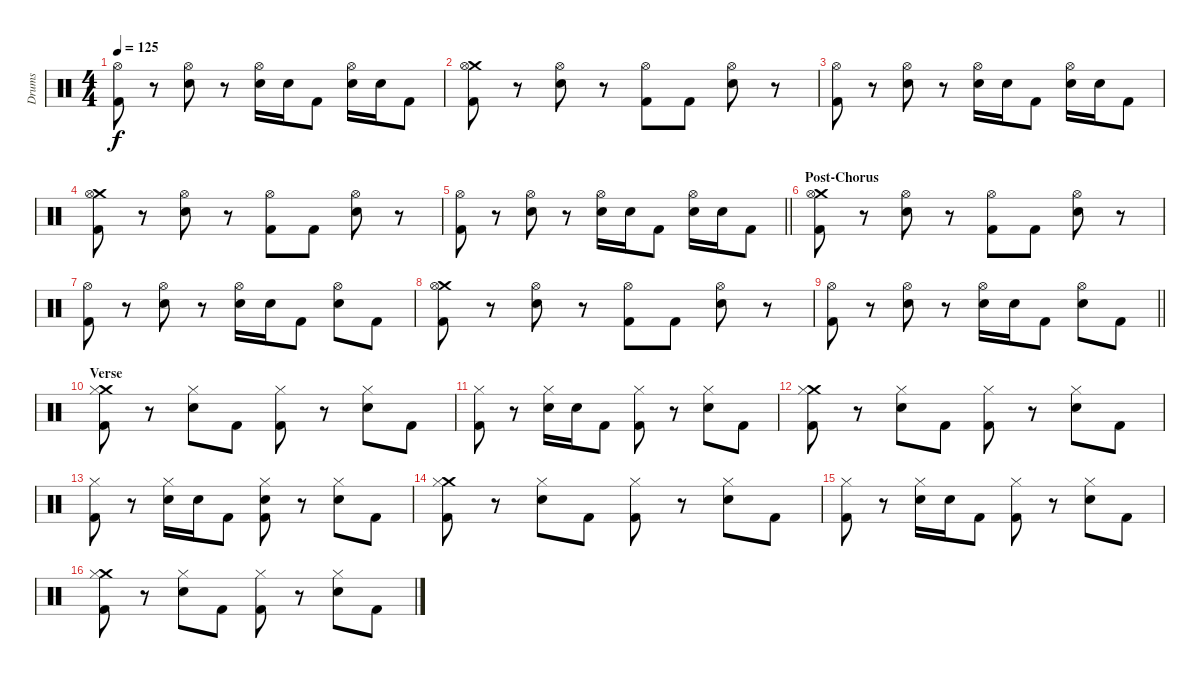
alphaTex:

\track ("Drums" "Drums") {instrument percussion}
\staff {score}
\articulation defaults
\ts (4 4)
\tempo 125
\clef neutral
\ks c
("Hi-Hat (open)" "Kick (hit) 2").8{dy f} r.8 ("Hi-Hat (open)" "Electric Snare (hit)").8 r.8 ("Hi-Hat (open)" "Electric Snare (hit)").16 "Electric Snare (hit)".16 "Kick (hit) 2".8 ("Hi-Hat (open)" "Electric Snare (hit)").16 "Electric Snare (hit)".16 "Kick (hit) 2".8 |
("Crash medium (hit)" "Hi-Hat (open)" "Kick (hit) 2").8 r.8 ("Hi-Hat (open)" "Electric Snare (hit)").8 r.8 ("Hi-Hat (open)" "Kick (hit) 2").8 "Kick (hit) 2".8 ("Hi-Hat (open)" "Electric Snare (hit)").8 r.8 |
("Hi-Hat (open)" "Kick (hit) 2").8 r.8 ("Hi-Hat (open)" "Electric Snare (hit)").8 r.8 ("Hi-Hat (open)" "Electric Snare (hit)").16 "Electric Snare (hit)".16 "Kick (hit) 2".8 ("Hi-Hat (open)" "Electric Snare (hit)").16 "Electric Snare (hit)".16 "Kick (hit) 2".8 |
("Crash medium (hit)" "Hi-Hat (open)" "Kick (hit) 2").8 r.8 ("Hi-Hat (open)" "Electric Snare (hit)").8 r.8 ("Hi-Hat (open)" "Kick (hit) 2").8 "Kick (hit) 2".8 ("Hi-Hat (open)" "Electric Snare (hit)").8 r.8 |
\barLineRight lightlight
("Hi-Hat (open)" "Kick (hit) 2").8 r.8 ("Hi-Hat (open)" "Electric Snare (hit)").8 r.8 ("Hi-Hat (open)" "Electric Snare (hit)").16 "Electric Snare (hit)".16 "Kick (hit) 2".8 ("Hi-Hat (open)" "Electric Snare (hit)").16 "Electric Snare (hit)".16 "Kick (hit) 2".8 |
\section ("" "Post-Chorus")
("Crash medium (hit)" "Hi-Hat (open)" "Kick (hit) 2").8 r.8 ("Hi-Hat (open)" "Electric Snare (hit)").8 r.8 ("Hi-Hat (open)" "Kick (hit) 2").8 "Kick (hit) 2".8 ("Hi-Hat (open)" "Electric Snare (hit)").8 r.8 |
("Hi-Hat (open)" "Kick (hit) 2").8 r.8 ("Hi-Hat (open)" "Electric Snare (hit)").8 r.8 ("Hi-Hat (open)" "Electric Snare (hit)").16 "Electric Snare (hit)".16 "Kick (hit) 2".8 ("Hi-Hat (open)" "Electric Snare (hit)").8 "Kick (hit) 2".8 |
("Crash medium (hit)" "Hi-Hat (open)" "Kick (hit) 2").8 r.8 ("Hi-Hat (open)" "Electric Snare (hit)").8 r.8 ("Hi-Hat (open)" "Kick (hit) 2").8 "Kick (hit) 2".8 ("Hi-Hat (open)" "Electric Snare (hit)").8 r.8 |
\barLineRight lightlight
("Hi-Hat (open)" "Kick (hit) 2").8 r.8 ("Hi-Hat (open)" "Electric Snare (hit)").8 r.8 ("Hi-Hat (open)" "Electric Snare (hit)").16 "Electric Snare (hit)".16 "Kick (hit) 2".8 ("Hi-Hat (open)" "Electric Snare (hit)").8 "Kick (hit) 2".8 |
\section ("" "Verse")
("Crash medium (hit)" "Hi-Hat (closed)" "Kick (hit) 2").8 r.8 ("Hi-Hat (closed)" "Electric Snare (hit)").8 "Kick (hit) 2".8 ("Hi-Hat (closed)" "Kick (hit) 2").8 r.8 ("Hi-Hat (closed)" "Electric Snare (hit)").8 "Kick (hit) 2".8 |
("Hi-Hat (closed)" "Kick (hit) 2").8 r.8 ("Hi-Hat (closed)" "Electric Snare (hit)").16 "Electric Snare (hit)".16 "Kick (hit) 2".8 ("Hi-Hat (closed)" "Kick (hit) 2").8 r.8 ("Hi-Hat (closed)" "Electric Snare (hit)").8 "Kick (hit) 2".8 |
("Crash medium (hit)" "Hi-Hat (closed)" "Kick (hit) 2").8 r.8 ("Hi-Hat (closed)" "Electric Snare (hit)").8 "Kick (hit) 2".8 ("Hi-Hat (closed)" "Kick (hit) 2").8 r.8 ("Hi-Hat (closed)" "Electric Snare (hit)").8 "Kick (hit) 2".8 |
("Hi-Hat (closed)" "Kick (hit) 2").8 r.8 ("Hi-Hat (closed)" "Electric Snare (hit)").16 "Electric Snare (hit)".16 "Kick (hit) 2".8 ("Hi-Hat (closed)" "Electric Snare (hit)" "Kick (hit) 2").8 r.8 ("Hi-Hat (closed)" "Electric Snare (hit)").8 "Kick (hit) 2".8 |
("Crash medium (hit)" "Hi-Hat (closed)" "Kick (hit) 2").8 r.8 ("Hi-Hat (closed)" "Electric Snare (hit)").8 "Kick (hit) 2".8 ("Hi-Hat (closed)" "Kick (hit) 2").8 r.8 ("Hi-Hat (closed)" "Electric Snare (hit)").8 "Kick (hit) 2".8 |
("Hi-Hat (closed)" "Kick (hit) 2").8 r.8 ("Hi-Hat (closed)" "Electric Snare (hit)").16 "Electric Snare (hit)".16 "Kick (hit) 2".8 ("Hi-Hat (closed)" "Kick (hit) 2").8 r.8 ("Hi-Hat (closed)" "Electric Snare (hit)").8 "Kick (hit) 2".8 |
("Crash medium (hit)" "Hi-Hat (closed)" "Kick (hit) 2").8 r.8 ("Hi-Hat (closed)" "Electric Snare (hit)").8 "Kick (hit) 2".8 ("Hi-Hat (closed)" "Kick (hit) 2").8 r.8 ("Hi-Hat (closed)" "Electric Snare (hit)").8 "Kick (hit) 2".8
